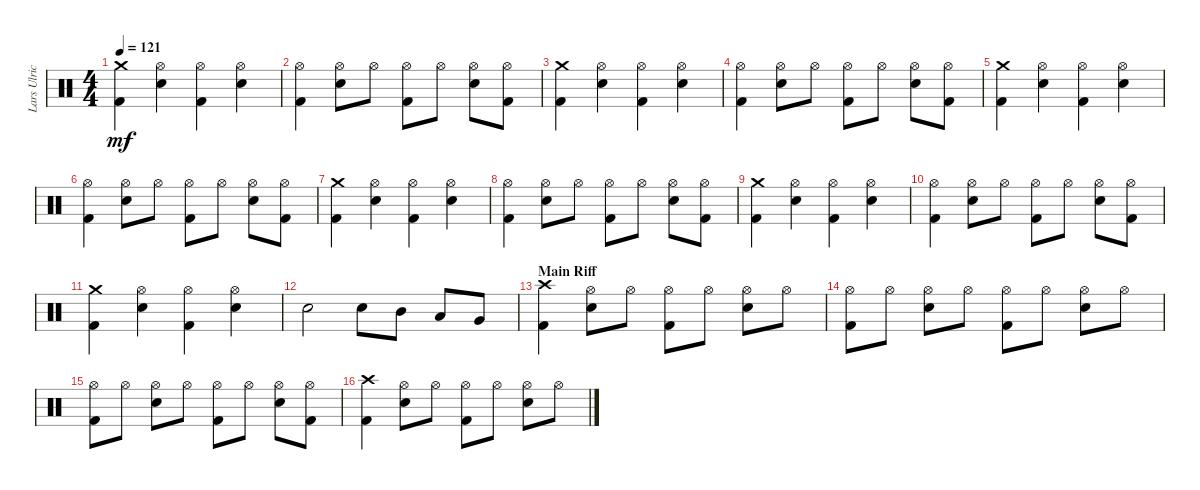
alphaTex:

\track ("Lars Ulrich" "Lars Ulric") {instrument percussion}
\staff {score}
\articulation defaults
\ts (4 4)
\tempo 121
\clef neutral
\ks c
("Crash medium (hit)" "Kick (hit) 2").4{dy mf} ("Hi-Hat (open)" "Snare (hit) 2").4 ("Hi-Hat (open)" "Kick (hit) 2").4 ("Hi-Hat (open)" "Snare (hit) 2").4 |
("Hi-Hat (open)" "Kick (hit) 2").4 ("Hi-Hat (open)" "Snare (hit) 2").8 "Hi-Hat (open)".8 ("Hi-Hat (open)" "Kick (hit) 2").8 "Hi-Hat (open)".8 ("Hi-Hat (open)" "Snare (hit) 2").8 ("Hi-Hat (open)" "Kick (hit) 2").8 |
("Crash medium (hit)" "Kick (hit) 2").4 ("Hi-Hat (open)" "Snare (hit) 2").4 ("Hi-Hat (open)" "Kick (hit) 2").4 ("Hi-Hat (open)" "Snare (hit) 2").4 |
("Hi-Hat (open)" "Kick (hit) 2").4 ("Hi-Hat (open)" "Snare (hit) 2").8 "Hi-Hat (open)".8 ("Hi-Hat (open)" "Kick (hit) 2").8 "Hi-Hat (open)".8 ("Hi-Hat (open)" "Snare (hit) 2").8 ("Hi-Hat (open)" "Kick (hit) 2").8 |
("Crash medium (hit)" "Kick (hit) 2").4 ("Hi-Hat (open)" "Snare (hit) 2").4 ("Hi-Hat (open)" "Kick (hit) 2").4 ("Hi-Hat (open)" "Snare (hit) 2").4 |
("Hi-Hat (open)" "Kick (hit) 2").4 ("Hi-Hat (open)" "Snare (hit) 2").8 "Hi-Hat (open)".8 ("Hi-Hat (open)" "Kick (hit) 2").8 "Hi-Hat (open)".8 ("Hi-Hat (open)" "Snare (hit) 2").8 ("Hi-Hat (open)" "Kick (hit) 2").8 |
("Crash medium (hit)" "Kick (hit) 2").4 ("Hi-Hat (open)" "Snare (hit) 2").4 ("Hi-Hat (open)" "Kick (hit) 2").4 ("Hi-Hat (open)" "Snare (hit) 2").4 |
("Hi-Hat (open)" "Kick (hit) 2").4 ("Hi-Hat (open)" "Snare (hit) 2").8 "Hi-Hat (open)".8 ("Hi-Hat (open)" "Kick (hit) 2").8 "Hi-Hat (open)".8 ("Hi-Hat (open)" "Snare (hit) 2").8 ("Hi-Hat (open)" "Kick (hit) 2").8 |
("Crash medium (hit)" "Kick (hit) 2").4 ("Hi-Hat (open)" "Snare (hit) 2").4 ("Hi-Hat (open)" "Kick (hit) 2").4 ("Hi-Hat (open)" "Snare (hit) 2").4 |
("Hi-Hat (open)" "Kick (hit) 2").4 ("Hi-Hat (open)" "Snare (hit) 2").8 "Hi-Hat (open)".8 ("Hi-Hat (open)" "Kick (hit) 2").8 "Hi-Hat (open)".8 ("Hi-Hat (open)" "Snare (hit) 2").8 ("Hi-Hat (open)" "Kick (hit) 2").8 |
("Crash medium (hit)" "Kick (hit) 2").4 ("Hi-Hat (open)" "Snare (hit) 2").4 ("Hi-Hat (open)" "Kick (hit) 2").4 ("Hi-Hat (open)" "Snare (hit) 2").4 |
"Snare (hit) 2".2 "Snare (hit) 2".8 "Mid Tom (hit)".8 "Low Tom (hit)".8 "Very Low Tom (hit)".8 |
\section ("" "Main Riff")
("Crash high (hit)" "Kick (hit) 2").4 ("Hi-Hat (open)" "Snare (hit) 2").8 "Hi-Hat (open)".8 ("Hi-Hat (open)" "Kick (hit) 2").8 "Hi-Hat (open)".8 ("Hi-Hat (open)" "Snare (hit) 2").8 "Hi-Hat (open)".8 |
("Hi-Hat (open)" "Kick (hit) 2").8 "Hi-Hat (open)".8 ("Hi-Hat (open)" "Snare (hit) 2").8 "Hi-Hat (open)".8 ("Hi-Hat (open)" "Kick (hit) 2").8 "Hi-Hat (open)".8 ("Hi-Hat (open)" "Snare (hit) 2").8 "Hi-Hat (open)".8 |
("Hi-Hat (open)" "Kick (hit) 2").8 "Hi-Hat (open)".8 ("Hi-Hat (open)" "Snare (hit) 2").8 "Hi-Hat (open)".8 ("Hi-Hat (open)" "Kick (hit) 2").8 "Hi-Hat (open)".8 ("Hi-Hat (open)" "Snare (hit) 2").8 ("Hi-Hat (open)" "Kick (hit) 2").8 |
("Crash high (hit)" "Kick (hit) 2").4 ("Hi-Hat (open)" "Snare (hit) 2").8 "Hi-Hat (open)".8 ("Hi-Hat (open)" "Kick (hit) 2").8 "Hi-Hat (open)".8 ("Hi-Hat (open)" "Snare (hit) 2").8 "Hi-Hat (open)".8
